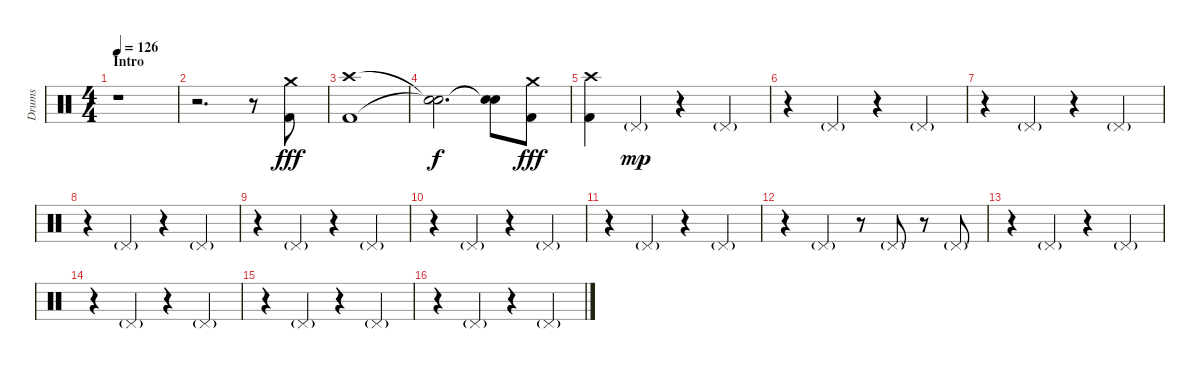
\track ("Drums" "Drums") {instrument percussion}
\staff {score}
\articulation defaults
\ts (4 4)
\section ("" "Intro")
\tempo 126
\clef neutral
\ks c
r.1{dy fff} |
r.2{d} r.8 ("Crash medium (hit)" "Kick (hit) 2").8 |
("Crash high (hit)" "Kick (hit) 2").1 |
("Snare (hit)"{t} "Snare (hit)"{t}).2{d dy f} ("Snare (hit)"{t} "Snare (hit)"{t}).8 ("Crash medium (hit)" "Kick (hit) 2").8{dy fff} |
("Crash high (hit)" "Kick (hit) 2").4 "Pedal Hi-Hat (hit)"{g}.4{dy mp} r.4 "Pedal Hi-Hat (hit)"{g}.4 |
r.4 "Pedal Hi-Hat (hit)"{g}.4 r.4 "Pedal Hi-Hat (hit)"{g}.4 |
r.4 "Pedal Hi-Hat (hit)"{g}.4 r.4 "Pedal Hi-Hat (hit)"{g}.4 |
r.4 "Pedal Hi-Hat (hit)"{g}.4 r.4 "Pedal Hi-Hat (hit)"{g}.4 |
r.4 "Pedal Hi-Hat (hit)"{g}.4 r.4 "Pedal Hi-Hat (hit)"{g}.4 |
r.4 "Pedal Hi-Hat (hit)"{g}.4 r.4 "Pedal Hi-Hat (hit)"{g}.4 |
r.4 "Pedal Hi-Hat (hit)"{g}.4 r.4 "Pedal Hi-Hat (hit)"{g}.4 |
r.4 "Pedal Hi-Hat (hit)"{g}.4 r.8 "Pedal Hi-Hat (hit)"{g}.8 r.8 "Pedal Hi-Hat (hit)"{g}.8 |
r.4 "Pedal Hi-Hat (hit)"{g}.4 r.4 "Pedal Hi-Hat (hit)"{g}.4 |
r.4 "Pedal Hi-Hat (hit)"{g}.4 r.4 "Pedal Hi-Hat (hit)"{g}.4 |
r.4 "Pedal Hi-Hat (hit)"{g}.4 r.4 "Pedal Hi-Hat (hit)"{g}.4 |
r.4 "Pedal Hi-Hat (hit)"{g}.4 r.4 "Pedal Hi-Hat (hit)"{g}.4
